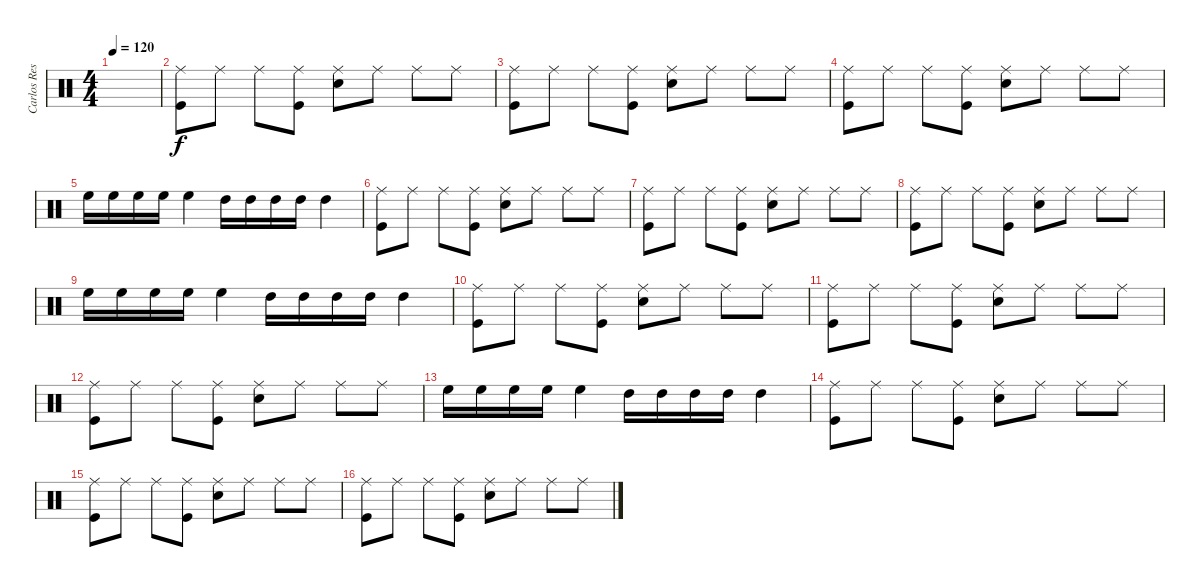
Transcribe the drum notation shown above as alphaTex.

\track ("Carlos Restrepo" "Carlos Res") {instrument percussion}
\staff {score}
\articulation defaults
\ts (4 4)
\tempo 120
\clef neutral
\ks c
|
("Ride (middle)" "Kick (hit)").8 "Ride (middle)".8 "Ride (middle)".8 ("Ride (middle)" "Kick (hit)").8 ("Ride (middle)" "Snare (hit) 2").8 "Ride (middle)".8 "Ride (middle)".8 "Ride (middle)".8 |
("Ride (middle)" "Kick (hit)").8 "Ride (middle)".8 "Ride (middle)".8 ("Ride (middle)" "Kick (hit)").8 ("Ride (middle)" "Snare (hit) 2").8 "Ride (middle)".8 "Ride (middle)".8 "Ride (middle)".8 |
("Ride (middle)" "Kick (hit)").8 "Ride (middle)".8 "Ride (middle)".8 ("Ride (middle)" "Kick (hit)").8 ("Ride (middle)" "Snare (hit) 2").8 "Ride (middle)".8 "Ride (middle)".8 "Ride (middle)".8 |
"High Floor Tom (hit)".16 "High Floor Tom (hit)".16 "High Floor Tom (hit)".16 "High Floor Tom (hit)".16 "High Floor Tom (hit)".4 "High Tom (hit)".16 "High Tom (hit)".16 "High Tom (hit)".16 "High Tom (hit)".16 "High Tom (hit)".4 |
("Ride (middle)" "Kick (hit)").8 "Ride (middle)".8 "Ride (middle)".8 ("Ride (middle)" "Kick (hit)").8 ("Ride (middle)" "Snare (hit) 2").8 "Ride (middle)".8 "Ride (middle)".8 "Ride (middle)".8 |
("Ride (middle)" "Kick (hit)").8 "Ride (middle)".8 "Ride (middle)".8 ("Ride (middle)" "Kick (hit)").8 ("Ride (middle)" "Snare (hit) 2").8 "Ride (middle)".8 "Ride (middle)".8 "Ride (middle)".8 |
("Ride (middle)" "Kick (hit)").8 "Ride (middle)".8 "Ride (middle)".8 ("Ride (middle)" "Kick (hit)").8 ("Ride (middle)" "Snare (hit) 2").8 "Ride (middle)".8 "Ride (middle)".8 "Ride (middle)".8 |
"High Floor Tom (hit)".16 "High Floor Tom (hit)".16 "High Floor Tom (hit)".16 "High Floor Tom (hit)".16 "High Floor Tom (hit)".4 "High Tom (hit)".16 "High Tom (hit)".16 "High Tom (hit)".16 "High Tom (hit)".16 "High Tom (hit)".4 |
("Ride (middle)" "Kick (hit)").8 "Ride (middle)".8 "Ride (middle)".8 ("Ride (middle)" "Kick (hit)").8 ("Ride (middle)" "Snare (hit) 2").8 "Ride (middle)".8 "Ride (middle)".8 "Ride (middle)".8 |
("Ride (middle)" "Kick (hit)").8 "Ride (middle)".8 "Ride (middle)".8 ("Ride (middle)" "Kick (hit)").8 ("Ride (middle)" "Snare (hit) 2").8 "Ride (middle)".8 "Ride (middle)".8 "Ride (middle)".8 |
("Ride (middle)" "Kick (hit)").8 "Ride (middle)".8 "Ride (middle)".8 ("Ride (middle)" "Kick (hit)").8 ("Ride (middle)" "Snare (hit) 2").8 "Ride (middle)".8 "Ride (middle)".8 "Ride (middle)".8 |
"High Floor Tom (hit)".16 "High Floor Tom (hit)".16 "High Floor Tom (hit)".16 "High Floor Tom (hit)".16 "High Floor Tom (hit)".4 "High Tom (hit)".16 "High Tom (hit)".16 "High Tom (hit)".16 "High Tom (hit)".16 "High Tom (hit)".4 |
("Ride (middle)" "Kick (hit)").8 "Ride (middle)".8 "Ride (middle)".8 ("Ride (middle)" "Kick (hit)").8 ("Ride (middle)" "Snare (hit) 2").8 "Ride (middle)".8 "Ride (middle)".8 "Ride (middle)".8 |
("Ride (middle)" "Kick (hit)").8 "Ride (middle)".8 "Ride (middle)".8 ("Ride (middle)" "Kick (hit)").8 ("Ride (middle)" "Snare (hit) 2").8 "Ride (middle)".8 "Ride (middle)".8 "Ride (middle)".8 |
("Ride (middle)" "Kick (hit)").8 "Ride (middle)".8 "Ride (middle)".8 ("Ride (middle)" "Kick (hit)").8 ("Ride (middle)" "Snare (hit) 2").8 "Ride (middle)".8 "Ride (middle)".8 "Ride (middle)".8
